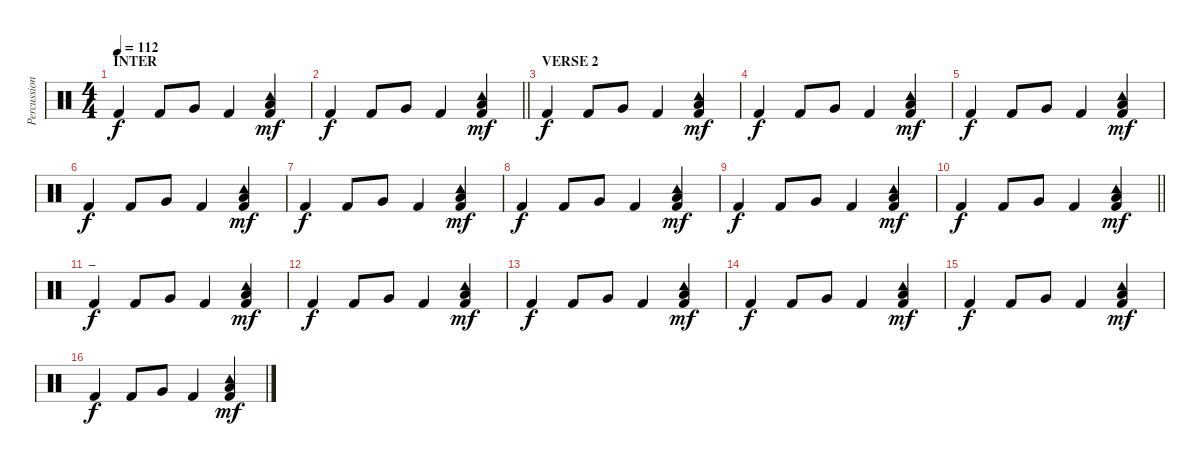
\track ("Percussion" "Percussion") {instrument percussion}
\staff {score}
\articulation defaults
\ts (4 4)
\section ("" "INTER")
\tempo 112
\clef neutral
\ks c "Kick (hit) 2".4{dy f} "Kick (hit) 2".8 "Very Low Tom (hit)".8 "Kick (hit) 2".4
("Kick (hit) 2" "Low Floor Tom (hit)" "Tambourine (hit)").4{dy mf} |
\barLineRight lightlight "Kick (hit) 2".4{dy f} "Kick (hit) 2".8 "Very Low Tom (hit)".8 "Kick (hit) 2".4
("Kick (hit) 2" "Low Floor Tom (hit)" "Tambourine (hit)").4{dy mf} |
\section ("" "VERSE 2")
"Kick (hit) 2".4{dy f} "Kick (hit) 2".8 "Very Low Tom (hit)".8 "Kick (hit) 2".4 ("Kick (hit) 2" "Low Floor Tom (hit)" "Tambourine (hit)").4{dy mf} |
"Kick (hit) 2".4{dy f} "Kick (hit) 2".8 "Very Low Tom (hit)".8 "Kick (hit) 2".4 ("Kick (hit) 2" "Low Floor Tom (hit)" "Tambourine (hit)").4{dy mf} |
"Kick (hit) 2".4{dy f} "Kick (hit) 2".8 "Very Low Tom (hit)".8 "Kick (hit) 2".4 ("Kick (hit) 2" "Low Floor Tom (hit)" "Tambourine (hit)").4{dy mf} |
"Kick (hit) 2".4{dy f} "Kick (hit) 2".8 "Very Low Tom (hit)".8 "Kick (hit) 2".4 ("Kick (hit) 2" "Low Floor Tom (hit)" "Tambourine (hit)").4{dy mf} |
"Kick (hit) 2".4{dy f} "Kick (hit) 2".8 "Very Low Tom (hit)".8 "Kick (hit) 2".4 ("Kick (hit) 2" "Low Floor Tom (hit)" "Tambourine (hit)").4{dy mf} |
"Kick (hit) 2".4{dy f} "Kick (hit) 2".8 "Very Low Tom (hit)".8 "Kick (hit) 2".4 ("Kick (hit) 2" "Low Floor Tom (hit)" "Tambourine (hit)").4{dy mf} |
"Kick (hit) 2".4{dy f} "Kick (hit) 2".8 "Very Low Tom (hit)".8 "Kick (hit) 2".4 ("Kick (hit) 2" "Low Floor Tom (hit)" "Tambourine (hit)").4{dy mf} |
\barLineRight lightlight "Kick (hit) 2".4{dy f} "Kick (hit) 2".8 "Very Low Tom (hit)".8 "Kick (hit) 2".4
("Kick (hit) 2" "Low Floor Tom (hit)" "Tambourine (hit)").4{dy mf} |
\section ("" "_")
"Kick (hit) 2".4{dy f} "Kick (hit) 2".8 "Very Low Tom (hit)".8 "Kick (hit) 2".4 ("Kick (hit) 2" "Low Floor Tom (hit)" "Tambourine (hit)").4{dy mf} |
"Kick (hit) 2".4{dy f} "Kick (hit) 2".8 "Very Low Tom (hit)".8 "Kick (hit) 2".4 ("Kick (hit) 2" "Low Floor Tom (hit)" "Tambourine (hit)").4{dy mf} |
"Kick (hit) 2".4{dy f} "Kick (hit) 2".8 "Very Low Tom (hit)".8 "Kick (hit) 2".4 ("Kick (hit) 2" "Low Floor Tom (hit)" "Tambourine (hit)").4{dy mf} |
"Kick (hit) 2".4{dy f} "Kick (hit) 2".8 "Very Low Tom (hit)".8 "Kick (hit) 2".4 ("Kick (hit) 2" "Low Floor Tom (hit)" "Tambourine (hit)").4{dy mf} |
"Kick (hit) 2".4{dy f} "Kick (hit) 2".8 "Very Low Tom (hit)".8 "Kick (hit) 2".4 ("Kick (hit) 2" "Low Floor Tom (hit)" "Tambourine (hit)").4{dy mf} |
"Kick (hit) 2".4{dy f} "Kick (hit) 2".8 "Very Low Tom (hit)".8 "Kick (hit) 2".4 ("Kick (hit) 2" "Low Floor Tom (hit)" "Tambourine (hit)").4{dy mf}
